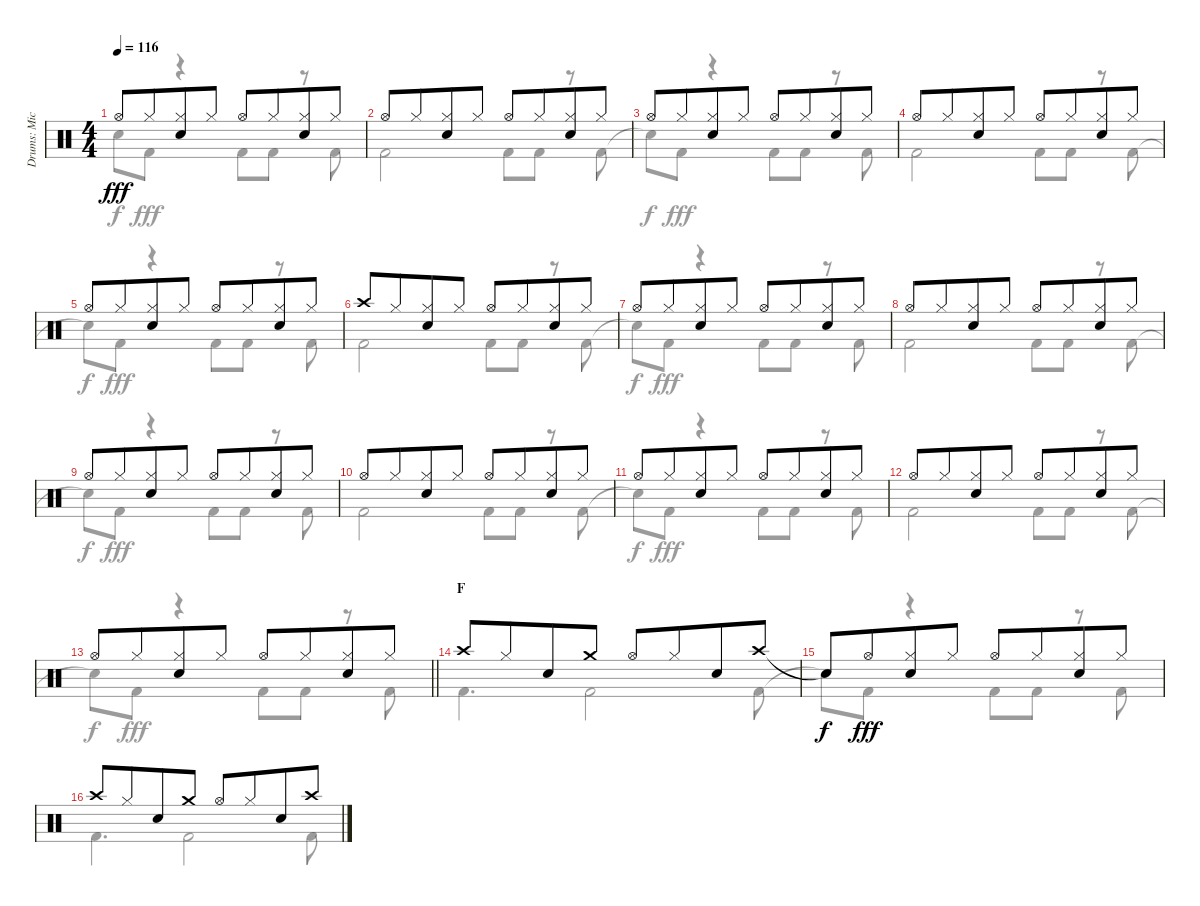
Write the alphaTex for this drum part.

\track ("Drums: Mick" "Drums: Mic") {instrument percussion}
\staff {score}
\articulation defaults
\voice
\ts (4 4)
\tempo 116
\clef neutral
\ks c "Hi-Hat (open)".8{dy fff} "Hi-Hat (closed)".8{beam merge}
("Hi-Hat (closed)" "Snare (hit) 2").8 "Hi-Hat (closed)".8 "Hi-Hat (open)".8 "Hi-Hat (closed)".8{beam merge} ("Hi-Hat (closed)" "Snare (hit) 2").8 "Hi-Hat (closed)".8 |
"Hi-Hat (open)".8 "Hi-Hat (closed)".8{beam merge} ("Hi-Hat (closed)" "Snare (hit) 2").8 "Hi-Hat (closed)".8 "Hi-Hat (open)".8 "Hi-Hat (closed)".8{beam merge} ("Hi-Hat (closed)" "Snare (hit) 2").8 "Hi-Hat (closed)".8 |
"Hi-Hat (open)".8 "Hi-Hat (closed)".8{beam merge} ("Hi-Hat (closed)" "Snare (hit) 2").8 "Hi-Hat (closed)".8 "Hi-Hat (open)".8 "Hi-Hat (closed)".8{beam merge} ("Hi-Hat (closed)" "Snare (hit) 2").8 "Hi-Hat (closed)".8 |
"Hi-Hat (open)".8 "Hi-Hat (closed)".8{beam merge} ("Hi-Hat (closed)" "Snare (hit) 2").8 "Hi-Hat (closed)".8 "Hi-Hat (open)".8 "Hi-Hat (closed)".8{beam merge} ("Hi-Hat (closed)" "Snare (hit) 2").8 "Hi-Hat (closed)".8 |
"Hi-Hat (open)".8 "Hi-Hat (closed)".8{beam merge} ("Hi-Hat (closed)" "Snare (hit) 2").8 "Hi-Hat (closed)".8 "Hi-Hat (open)".8 "Hi-Hat (closed)".8{beam merge} ("Hi-Hat (closed)" "Snare (hit) 2").8 "Hi-Hat (closed)".8 |
"Crash high (hit)".8 "Hi-Hat (closed)".8{beam merge} ("Hi-Hat (closed)" "Snare (hit) 2").8 "Hi-Hat (closed)".8 "Hi-Hat (open)".8 "Hi-Hat (closed)".8{beam merge} ("Hi-Hat (closed)" "Snare (hit) 2").8 "Hi-Hat (closed)".8 |
"Hi-Hat (open)".8 "Hi-Hat (closed)".8{beam merge} ("Hi-Hat (closed)" "Snare (hit) 2").8 "Hi-Hat (closed)".8 "Hi-Hat (open)".8 "Hi-Hat (closed)".8{beam merge} ("Hi-Hat (closed)" "Snare (hit) 2").8 "Hi-Hat (closed)".8 |
"Hi-Hat (open)".8 "Hi-Hat (closed)".8{beam merge} ("Hi-Hat (closed)" "Snare (hit) 2").8 "Hi-Hat (closed)".8 "Hi-Hat (open)".8 "Hi-Hat (closed)".8{beam merge} ("Hi-Hat (closed)" "Snare (hit) 2").8 "Hi-Hat (closed)".8 |
"Hi-Hat (open)".8 "Hi-Hat (closed)".8{beam merge} ("Hi-Hat (closed)" "Snare (hit) 2").8 "Hi-Hat (closed)".8 "Hi-Hat (open)".8 "Hi-Hat (closed)".8{beam merge} ("Hi-Hat (closed)" "Snare (hit) 2").8 "Hi-Hat (closed)".8 |
"Hi-Hat (open)".8 "Hi-Hat (closed)".8{beam merge} ("Hi-Hat (closed)" "Snare (hit) 2").8 "Hi-Hat (closed)".8 "Hi-Hat (open)".8 "Hi-Hat (closed)".8{beam merge} ("Hi-Hat (closed)" "Snare (hit) 2").8 "Hi-Hat (closed)".8 |
"Hi-Hat (open)".8 "Hi-Hat (closed)".8{beam merge} ("Hi-Hat (closed)" "Snare (hit) 2").8 "Hi-Hat (closed)".8 "Hi-Hat (open)".8 "Hi-Hat (closed)".8{beam merge} ("Hi-Hat (closed)" "Snare (hit) 2").8 "Hi-Hat (closed)".8 |
"Hi-Hat (open)".8 "Hi-Hat (closed)".8{beam merge} ("Hi-Hat (closed)" "Snare (hit) 2").8 "Hi-Hat (closed)".8 "Hi-Hat (open)".8 "Hi-Hat (closed)".8{beam merge} ("Hi-Hat (closed)" "Snare (hit) 2").8 "Hi-Hat (closed)".8 |
\barLineRight lightlight "Hi-Hat (open)".8 "Hi-Hat (closed)".8{beam merge}
("Hi-Hat (closed)" "Snare (hit) 2").8 "Hi-Hat (closed)".8 "Hi-Hat (open)".8 "Hi-Hat (closed)".8{beam merge} ("Hi-Hat (closed)" "Snare (hit) 2").8 "Hi-Hat (closed)".8 |
\section ("" "F")
"Crash high (hit)".8 "Hi-Hat (closed)".8{beam merge} "Snare (hit) 2".8 "Crash medium (hit)".8 "Hi-Hat (open)".8 "Hi-Hat (closed)".8{beam merge} "Snare (hit) 2".8 "Crash high (hit)".8 |
"Snare (hit)"{t}.8{dy f} "Hi-Hat (open)".8{dy fff beam merge} ("Hi-Hat (closed)" "Snare (hit) 2").8 "Hi-Hat (closed)".8 "Hi-Hat (open)".8 "Hi-Hat (closed)".8{beam merge} ("Hi-Hat (closed)" "Snare (hit) 2").8 "Hi-Hat (closed)".8 |
"Crash high (hit)".8 "Hi-Hat (closed)".8{beam merge} "Snare (hit) 2".8 "Crash medium (hit)".8 "Hi-Hat (open)".8 "Hi-Hat (closed)".8{beam merge} "Snare (hit) 2".8 "Crash high (hit)".8
\voice
\clef neutral
\ottava regular
\simile none
\ks c "Snare (hit)"{t}.8{dy f} "Kick (hit) 2".8{dy fff}
r.4 "Kick (hit) 2".8 "Kick (hit) 2".8 r.8 "Kick (hit) 2".8 |
"Kick (hit) 2".2 "Kick (hit) 2".8 "Kick (hit) 2".8 r.8 "Kick (hit) 2".8 |
"Snare (hit)"{t}.8{dy f} "Kick (hit) 2".8{dy fff} r.4 "Kick (hit) 2".8 "Kick (hit) 2".8 r.8 "Kick (hit) 2".8 |
"Kick (hit) 2".2 "Kick (hit) 2".8 "Kick (hit) 2".8 r.8 "Kick (hit) 2".8 |
"Snare (hit)"{t}.8{dy f} "Kick (hit) 2".8{dy fff} r.4 "Kick (hit) 2".8 "Kick (hit) 2".8 r.8 "Kick (hit) 2".8 |
"Kick (hit) 2".2 "Kick (hit) 2".8 "Kick (hit) 2".8 r.8 "Kick (hit) 2".8 |
"Snare (hit)"{t}.8{dy f} "Kick (hit) 2".8{dy fff} r.4 "Kick (hit) 2".8 "Kick (hit) 2".8 r.8 "Kick (hit) 2".8 |
"Kick (hit) 2".2 "Kick (hit) 2".8 "Kick (hit) 2".8 r.8 "Kick (hit) 2".8 |
"Snare (hit)"{t}.8{dy f} "Kick (hit) 2".8{dy fff} r.4 "Kick (hit) 2".8 "Kick (hit) 2".8 r.8 "Kick (hit) 2".8 |
"Kick (hit) 2".2 "Kick (hit) 2".8 "Kick (hit) 2".8 r.8 "Kick (hit) 2".8 |
"Snare (hit)"{t}.8{dy f} "Kick (hit) 2".8{dy fff} r.4 "Kick (hit) 2".8 "Kick (hit) 2".8 r.8 "Kick (hit) 2".8 |
"Kick (hit) 2".2 "Kick (hit) 2".8 "Kick (hit) 2".8 r.8 "Kick (hit) 2".8 |
\barLineRight lightlight "Snare (hit)"{t}.8{dy f} "Kick (hit) 2".8{dy fff}
r.4 "Kick (hit) 2".8 "Kick (hit) 2".8 r.8 "Kick (hit) 2".8 |
"Kick (hit) 2".4{d} "Kick (hit) 2".2 "Kick (hit) 2".8 |
"Snare (hit)"{t}.8{dy f} "Kick (hit) 2".8{dy fff} r.4 "Kick (hit) 2".8 "Kick (hit) 2".8 r.8 "Kick (hit) 2".8 |
"Kick (hit) 2".4{d} "Kick (hit) 2".2 "Kick (hit) 2".8
